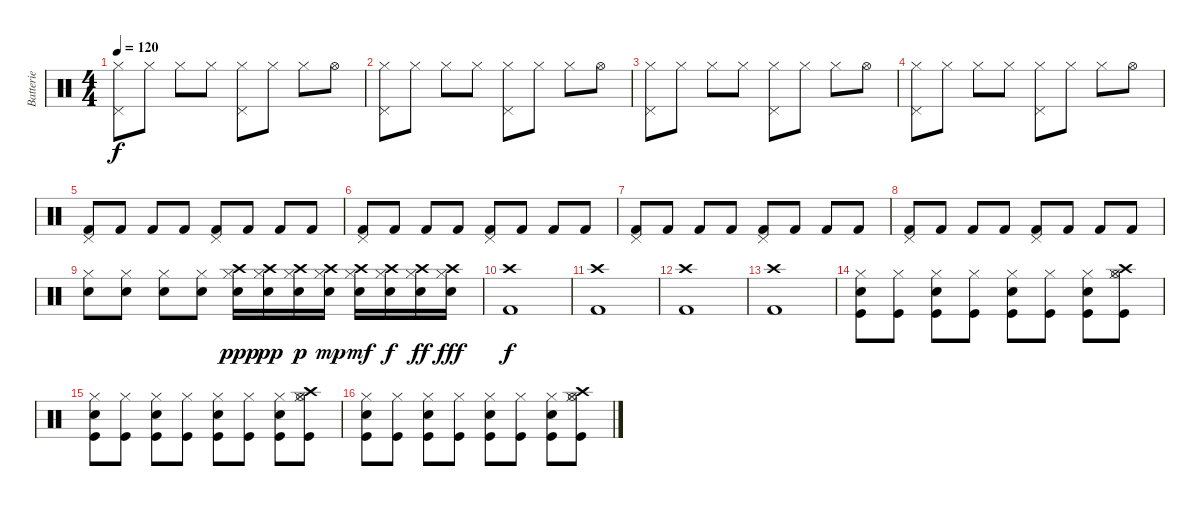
\track ("Batterie" "Batterie") {instrument percussion}
\staff {score}
\articulation defaults
\ts (4 4)
\tempo 120
\clef neutral
\ks c
("Hi-Hat (closed)" "Pedal Hi-Hat (hit)").8{dy f} "Hi-Hat (closed)".8 "Hi-Hat (closed)".8 "Hi-Hat (closed)".8 ("Hi-Hat (closed)" "Pedal Hi-Hat (hit)").8 "Hi-Hat (closed)".8 "Hi-Hat (closed)".8 "Hi-Hat (open)".8 |
("Hi-Hat (closed)" "Pedal Hi-Hat (hit)").8 "Hi-Hat (closed)".8 "Hi-Hat (closed)".8 "Hi-Hat (closed)".8 ("Hi-Hat (closed)" "Pedal Hi-Hat (hit)").8 "Hi-Hat (closed)".8 "Hi-Hat (closed)".8 "Hi-Hat (open)".8 |
("Hi-Hat (closed)" "Pedal Hi-Hat (hit)").8 "Hi-Hat (closed)".8 "Hi-Hat (closed)".8 "Hi-Hat (closed)".8 ("Hi-Hat (closed)" "Pedal Hi-Hat (hit)").8 "Hi-Hat (closed)".8 "Hi-Hat (closed)".8 "Hi-Hat (open)".8 |
("Hi-Hat (closed)" "Pedal Hi-Hat (hit)").8 "Hi-Hat (closed)".8 "Hi-Hat (closed)".8 "Hi-Hat (closed)".8 ("Hi-Hat (closed)" "Pedal Hi-Hat (hit)").8 "Hi-Hat (closed)".8 "Hi-Hat (closed)".8 "Hi-Hat (open)".8 |
("Kick (hit) 2" "Pedal Hi-Hat (hit)").8 "Kick (hit) 2".8 "Kick (hit) 2".8 "Kick (hit) 2".8 ("Kick (hit) 2" "Pedal Hi-Hat (hit)").8 "Kick (hit) 2".8 "Kick (hit) 2".8 "Kick (hit) 2".8 |
("Kick (hit) 2" "Pedal Hi-Hat (hit)").8 "Kick (hit) 2".8 "Kick (hit) 2".8 "Kick (hit) 2".8 ("Kick (hit) 2" "Pedal Hi-Hat (hit)").8 "Kick (hit) 2".8 "Kick (hit) 2".8 "Kick (hit) 2".8 |
("Kick (hit) 2" "Pedal Hi-Hat (hit)").8 "Kick (hit) 2".8 "Kick (hit) 2".8 "Kick (hit) 2".8 ("Kick (hit) 2" "Pedal Hi-Hat (hit)").8 "Kick (hit) 2".8 "Kick (hit) 2".8 "Kick (hit) 2".8 |
("Kick (hit) 2" "Pedal Hi-Hat (hit)").8 "Kick (hit) 2".8 "Kick (hit) 2".8 "Kick (hit) 2".8 ("Kick (hit) 2" "Pedal Hi-Hat (hit)").8 "Kick (hit) 2".8 "Kick (hit) 2".8 "Kick (hit) 2".8 |
("Electric Snare (hit)" "Hi-Hat (closed)").8 ("Electric Snare (hit)" "Hi-Hat (closed)").8 ("Electric Snare (hit)" "Hi-Hat (closed)").8 ("Electric Snare (hit)" "Hi-Hat (closed)").8 ("Electric Snare (hit)" "Hi-Hat (closed)" "Crash high (hit)").16{dy ppp} ("Electric Snare (hit)" "Hi-Hat (closed)" "Crash high (hit)").16{dy pp} ("Electric Snare (hit)" "Hi-Hat (closed)" "Crash high (hit)").16{dy p} ("Electric Snare (hit)" "Hi-Hat (closed)" "Crash high (hit)").16{dy mp} ("Electric Snare (hit)" "Hi-Hat (closed)" "Crash high (hit)").16{dy mf} ("Electric Snare (hit)" "Hi-Hat (closed)" "Crash high (hit)").16{dy f} ("Electric Snare (hit)" "Hi-Hat (closed)" "Crash high (hit)").16{dy ff} ("Electric Snare (hit)" "Hi-Hat (closed)" "Crash high (hit)").16{dy fff} |
("Kick (hit) 2" "Crash high (hit)").1{dy f} |
("Kick (hit) 2" "Crash high (hit)").1 |
("Kick (hit) 2" "Crash high (hit)").1 |
("Kick (hit) 2" "Crash high (hit)").1 |
("Hi-Hat (closed)" "Electric Snare (hit)" "Kick (hit)").8 ("Hi-Hat (closed)" "Kick (hit)").8 ("Hi-Hat (closed)" "Electric Snare (hit)" "Kick (hit)").8 ("Hi-Hat (closed)" "Kick (hit)").8 ("Hi-Hat (closed)" "Electric Snare (hit)" "Kick (hit)").8 ("Hi-Hat (closed)" "Kick (hit)").8 ("Hi-Hat (closed)" "Electric Snare (hit)" "Kick (hit)").8 ("Hi-Hat (closed)" "Kick (hit)" "Crash high (hit)" "Hi-Hat (open)").8 |
("Hi-Hat (closed)" "Electric Snare (hit)" "Kick (hit)").8 ("Hi-Hat (closed)" "Kick (hit)").8 ("Hi-Hat (closed)" "Electric Snare (hit)" "Kick (hit)").8 ("Hi-Hat (closed)" "Kick (hit)").8 ("Hi-Hat (closed)" "Electric Snare (hit)" "Kick (hit)").8 ("Hi-Hat (closed)" "Kick (hit)").8 ("Hi-Hat (closed)" "Electric Snare (hit)" "Kick (hit)").8 ("Hi-Hat (closed)" "Kick (hit)" "Hi-Hat (open)" "Crash high (hit)").8 |
("Hi-Hat (closed)" "Electric Snare (hit)" "Kick (hit)").8 ("Hi-Hat (closed)" "Kick (hit)").8 ("Hi-Hat (closed)" "Electric Snare (hit)" "Kick (hit)").8 ("Hi-Hat (closed)" "Kick (hit)").8 ("Hi-Hat (closed)" "Electric Snare (hit)" "Kick (hit)").8 ("Hi-Hat (closed)" "Kick (hit)").8 ("Hi-Hat (closed)" "Electric Snare (hit)" "Kick (hit)").8 ("Hi-Hat (closed)" "Kick (hit)" "Hi-Hat (open)" "Crash high (hit)").8
